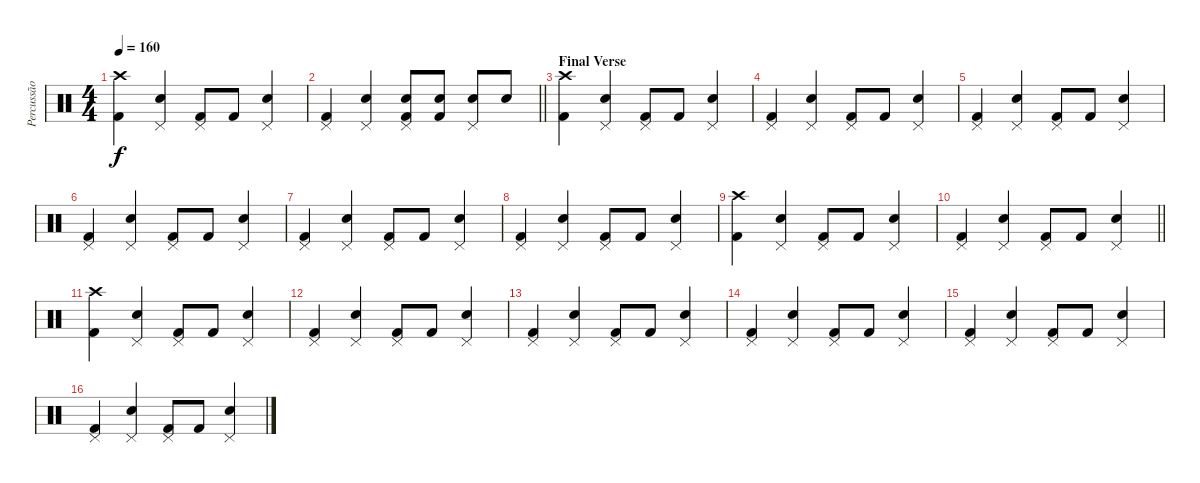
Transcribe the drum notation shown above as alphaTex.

\track ("Percussão" "Percussão") {instrument percussion}
\staff {score}
\articulation defaults
\ts (4 4)
\tempo 160
\clef neutral
\ks c
("Crash high (hit)" "Kick (hit) 2").4{dy f} ("Pedal Hi-Hat (hit)" "Snare (hit) 2").4 ("Pedal Hi-Hat (hit)" "Kick (hit) 2").8 "Kick (hit) 2".8 ("Pedal Hi-Hat (hit)" "Snare (hit) 2").4 |
\barLineRight lightlight
("Pedal Hi-Hat (hit)" "Kick (hit) 2").4 ("Pedal Hi-Hat (hit)" "Snare (hit) 2").4 ("Pedal Hi-Hat (hit)" "Snare (hit) 2" "Kick (hit) 2").8 ("Snare (hit) 2" "Kick (hit) 2").8 ("Pedal Hi-Hat (hit)" "Snare (hit) 2").8 "Snare (hit) 2".8 |
\section ("" "Final Verse")
("Crash high (hit)" "Kick (hit) 2").4 ("Pedal Hi-Hat (hit)" "Snare (hit) 2").4 ("Pedal Hi-Hat (hit)" "Kick (hit) 2").8 "Kick (hit) 2".8 ("Pedal Hi-Hat (hit)" "Snare (hit) 2").4 |
("Pedal Hi-Hat (hit)" "Kick (hit) 2").4 ("Pedal Hi-Hat (hit)" "Snare (hit) 2").4 ("Pedal Hi-Hat (hit)" "Kick (hit) 2").8 "Kick (hit) 2".8 ("Pedal Hi-Hat (hit)" "Snare (hit) 2").4 |
("Pedal Hi-Hat (hit)" "Kick (hit) 2").4 ("Pedal Hi-Hat (hit)" "Snare (hit) 2").4 ("Pedal Hi-Hat (hit)" "Kick (hit) 2").8 "Kick (hit) 2".8 ("Pedal Hi-Hat (hit)" "Snare (hit) 2").4 |
("Pedal Hi-Hat (hit)" "Kick (hit) 2").4 ("Pedal Hi-Hat (hit)" "Snare (hit) 2").4 ("Pedal Hi-Hat (hit)" "Kick (hit) 2").8 "Kick (hit) 2".8 ("Pedal Hi-Hat (hit)" "Snare (hit) 2").4 |
("Pedal Hi-Hat (hit)" "Kick (hit) 2").4 ("Pedal Hi-Hat (hit)" "Snare (hit) 2").4 ("Pedal Hi-Hat (hit)" "Kick (hit) 2").8 "Kick (hit) 2".8 ("Pedal Hi-Hat (hit)" "Snare (hit) 2").4 |
("Pedal Hi-Hat (hit)" "Kick (hit) 2").4 ("Pedal Hi-Hat (hit)" "Snare (hit) 2").4 ("Pedal Hi-Hat (hit)" "Kick (hit) 2").8 "Kick (hit) 2".8 ("Pedal Hi-Hat (hit)" "Snare (hit) 2").4 |
("Crash high (hit)" "Kick (hit) 2").4 ("Pedal Hi-Hat (hit)" "Snare (hit) 2").4 ("Pedal Hi-Hat (hit)" "Kick (hit) 2").8 "Kick (hit) 2".8 ("Pedal Hi-Hat (hit)" "Snare (hit) 2").4 |
\barLineRight lightlight
("Pedal Hi-Hat (hit)" "Kick (hit) 2").4 ("Pedal Hi-Hat (hit)" "Snare (hit) 2").4 ("Pedal Hi-Hat (hit)" "Kick (hit) 2").8 "Kick (hit) 2".8 ("Pedal Hi-Hat (hit)" "Snare (hit) 2").4 |
("Crash high (hit)" "Kick (hit) 2").4 ("Pedal Hi-Hat (hit)" "Snare (hit) 2").4 ("Pedal Hi-Hat (hit)" "Kick (hit) 2").8 "Kick (hit) 2".8 ("Pedal Hi-Hat (hit)" "Snare (hit) 2").4 |
("Pedal Hi-Hat (hit)" "Kick (hit) 2").4 ("Pedal Hi-Hat (hit)" "Snare (hit) 2").4 ("Pedal Hi-Hat (hit)" "Kick (hit) 2").8 "Kick (hit) 2".8 ("Pedal Hi-Hat (hit)" "Snare (hit) 2").4 |
("Pedal Hi-Hat (hit)" "Kick (hit) 2").4 ("Pedal Hi-Hat (hit)" "Snare (hit) 2").4 ("Pedal Hi-Hat (hit)" "Kick (hit) 2").8 "Kick (hit) 2".8 ("Pedal Hi-Hat (hit)" "Snare (hit) 2").4 |
("Pedal Hi-Hat (hit)" "Kick (hit) 2").4 ("Pedal Hi-Hat (hit)" "Snare (hit) 2").4 ("Pedal Hi-Hat (hit)" "Kick (hit) 2").8 "Kick (hit) 2".8 ("Pedal Hi-Hat (hit)" "Snare (hit) 2").4 |
("Pedal Hi-Hat (hit)" "Kick (hit) 2").4 ("Pedal Hi-Hat (hit)" "Snare (hit) 2").4 ("Pedal Hi-Hat (hit)" "Kick (hit) 2").8 "Kick (hit) 2".8 ("Pedal Hi-Hat (hit)" "Snare (hit) 2").4 |
("Pedal Hi-Hat (hit)" "Kick (hit) 2").4 ("Pedal Hi-Hat (hit)" "Snare (hit) 2").4 ("Pedal Hi-Hat (hit)" "Kick (hit) 2").8 "Kick (hit) 2".8 ("Pedal Hi-Hat (hit)" "Snare (hit) 2").4
